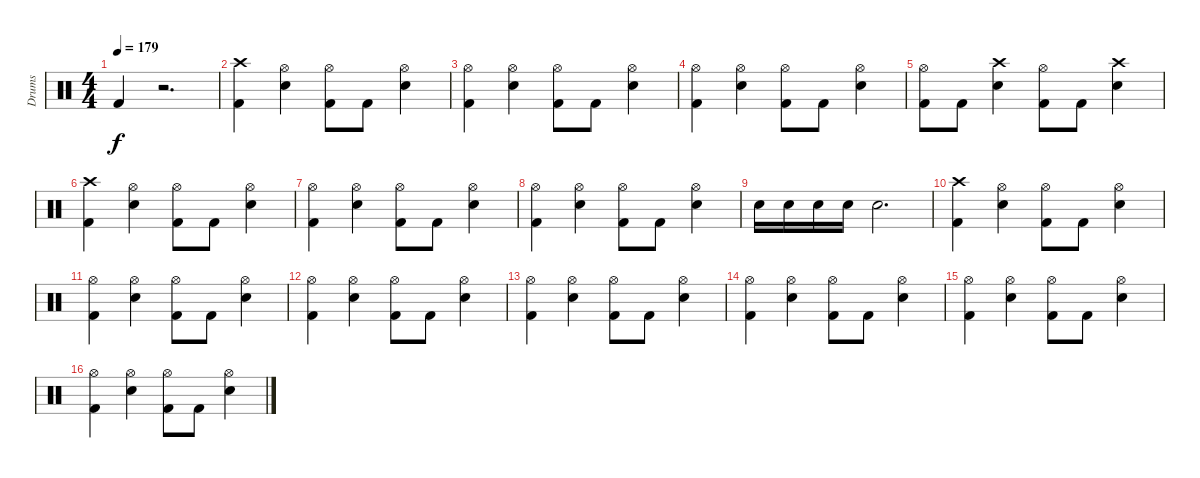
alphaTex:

\track ("Drums" "Drums") {instrument percussion}
\staff {score}
\articulation defaults
\ts (4 4)
\tempo 179
\clef neutral
\ks c "Kick (hit) 2".4{dy f}
r.2{d} |
("Crash high (hit)" "Kick (hit) 2").4 ("Hi-Hat (open)" "Snare (hit) 2").4 ("Hi-Hat (open)" "Kick (hit) 2").8 "Kick (hit) 2".8 ("Hi-Hat (open)" "Snare (hit) 2").4 |
("Hi-Hat (open)" "Kick (hit) 2").4 ("Hi-Hat (open)" "Snare (hit) 2").4 ("Hi-Hat (open)" "Kick (hit) 2").8 "Kick (hit) 2".8 ("Hi-Hat (open)" "Snare (hit) 2").4 |
("Hi-Hat (open)" "Kick (hit) 2").4 ("Hi-Hat (open)" "Snare (hit) 2").4 ("Hi-Hat (open)" "Kick (hit) 2").8 "Kick (hit) 2".8 ("Hi-Hat (open)" "Snare (hit) 2").4 |
("Hi-Hat (open)" "Kick (hit) 2").8 "Kick (hit) 2".8 ("Crash high (hit)" "Snare (hit) 2").4 ("Hi-Hat (open)" "Kick (hit) 2").8 "Kick (hit) 2".8 ("Crash high (hit)" "Snare (hit) 2").4 |
("Crash high (hit)" "Kick (hit) 2").4 ("Hi-Hat (open)" "Snare (hit) 2").4 ("Hi-Hat (open)" "Kick (hit) 2").8 "Kick (hit) 2".8 ("Hi-Hat (open)" "Snare (hit) 2").4 |
("Hi-Hat (open)" "Kick (hit) 2").4 ("Hi-Hat (open)" "Snare (hit) 2").4 ("Hi-Hat (open)" "Kick (hit) 2").8 "Kick (hit) 2".8 ("Hi-Hat (open)" "Snare (hit) 2").4 |
("Hi-Hat (open)" "Kick (hit) 2").4 ("Hi-Hat (open)" "Snare (hit) 2").4 ("Hi-Hat (open)" "Kick (hit) 2").8 "Kick (hit) 2".8 ("Hi-Hat (open)" "Snare (hit) 2").4 |
"Snare (hit) 2".16 "Snare (hit) 2".16 "Snare (hit) 2".16 "Snare (hit) 2".16 "Snare (hit) 2".2{d} |
("Crash high (hit)" "Kick (hit) 2").4 ("Hi-Hat (open)" "Snare (hit) 2").4 ("Hi-Hat (open)" "Kick (hit) 2").8 "Kick (hit) 2".8 ("Hi-Hat (open)" "Snare (hit) 2").4 |
("Hi-Hat (open)" "Kick (hit) 2").4 ("Hi-Hat (open)" "Snare (hit) 2").4 ("Hi-Hat (open)" "Kick (hit) 2").8 "Kick (hit) 2".8 ("Hi-Hat (open)" "Snare (hit) 2").4 |
("Hi-Hat (open)" "Kick (hit) 2").4 ("Hi-Hat (open)" "Snare (hit) 2").4 ("Hi-Hat (open)" "Kick (hit) 2").8 "Kick (hit) 2".8 ("Hi-Hat (open)" "Snare (hit) 2").4 |
("Hi-Hat (open)" "Kick (hit) 2").4 ("Hi-Hat (open)" "Snare (hit) 2").4 ("Hi-Hat (open)" "Kick (hit) 2").8 "Kick (hit) 2".8 ("Hi-Hat (open)" "Snare (hit) 2").4 |
("Hi-Hat (open)" "Kick (hit) 2").4 ("Hi-Hat (open)" "Snare (hit) 2").4 ("Hi-Hat (open)" "Kick (hit) 2").8 "Kick (hit) 2".8 ("Hi-Hat (open)" "Snare (hit) 2").4 |
("Hi-Hat (open)" "Kick (hit) 2").4 ("Hi-Hat (open)" "Snare (hit) 2").4 ("Hi-Hat (open)" "Kick (hit) 2").8 "Kick (hit) 2".8 ("Hi-Hat (open)" "Snare (hit) 2").4 |
("Hi-Hat (open)" "Kick (hit) 2").4 ("Hi-Hat (open)" "Snare (hit) 2").4 ("Hi-Hat (open)" "Kick (hit) 2").8 "Kick (hit) 2".8 ("Hi-Hat (open)" "Snare (hit) 2").4
